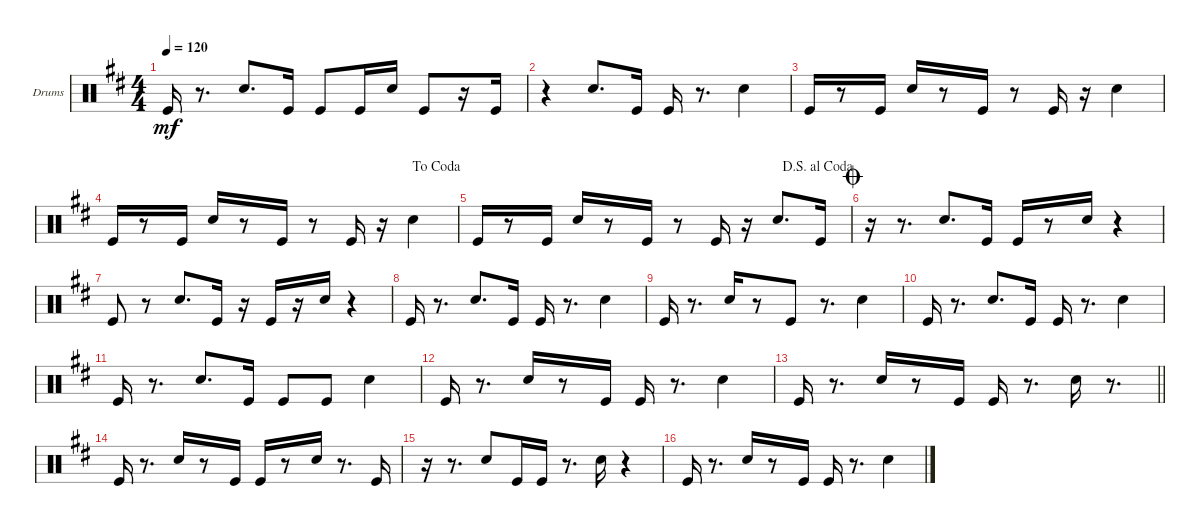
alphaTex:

\defaultSystemsLayout 4
\bracketExtendMode groupsimilarinstruments
\firstSystemTrackNameOrientation horizontal
\otherSystemsTrackNameOrientation horizontal
\track ("Drumkit" "Drums") {multiBarRest instrument percussion}
\staff {score}
\articulation defaults
\ts (4 4)
\tempo 120
\clef neutral
\scale
0.333333
\ks d "Kick (hit)".16{dy mf}
r.8{d} "Snare (hit) 2".8{d} "Kick (hit)".16 "Kick (hit)".8 "Kick (hit)".16 "Snare (hit) 2".16 "Kick (hit)".8 r.16 "Kick (hit)".16 |
\scale
0.333333 r.4 "Snare (hit) 2".8{d} "Kick (hit)".16 "Kick (hit)".16 r.8{d} "Snare (hit) 2".4 |
\scale
0.333333 "Kick (hit)".16 r.8 "Kick (hit)".16 "Snare (hit) 2".16 r.8 "Kick (hit)".16 r.8 "Kick (hit)".16 r.16 "Snare (hit) 2".4 |
\jump dacoda
\scale
0.333333 "Kick (hit)".16 r.8 "Kick (hit)".16 "Snare (hit) 2".16 r.8 "Kick (hit)".16 r.8 "Kick (hit)".16 r.16 "Snare (hit) 2".4 |
\jump dalsegnoalcoda
\scale
0.333333 "Kick (hit)".16 r.8 "Kick (hit)".16 "Snare (hit) 2".16 r.8 "Kick (hit)".16 r.8 "Kick (hit)".16 r.16 "Snare (hit) 2".8{d} "Kick (hit)".16 |
\jump coda
\scale
0.333333 r.16 r.8{d} "Snare (hit) 2".8{d} "Kick (hit)".16 "Kick (hit)".16 r.8 "Snare (hit) 2".16 r.4 |
\scale
0.333333 "Kick (hit)".8 r.8 "Snare (hit) 2".8{d} "Kick (hit)".16 r.16 "Kick (hit)".16 r.16 "Snare (hit) 2".16 r.4 |
\scale
0.333333 "Kick (hit)".16 r.8{d} "Snare (hit) 2".8{d} "Kick (hit)".16 "Kick (hit)".16 r.8{d} "Snare (hit) 2".4 |
\scale
0.333333 "Kick (hit)".16 r.8{d} "Snare (hit) 2".16 r.8 "Kick (hit)".8 r.8{d} "Snare (hit) 2".4 |
\scale
0.333333 "Kick (hit)".16 r.8{d} "Snare (hit) 2".8{d} "Kick (hit)".16 "Kick (hit)".16 r.8{d} "Snare (hit) 2".4 |
\scale
0.333333 "Kick (hit)".16 r.8{d} "Snare (hit) 2".8{d} "Kick (hit)".16 "Kick (hit)".8 "Kick (hit)".8 "Snare (hit) 2".4 |
\scale
0.333333 "Kick (hit)".16 r.8{d} "Snare (hit) 2".16 r.8 "Kick (hit)".16 "Kick (hit)".16 r.8{d} "Snare (hit) 2".4 |
\scale
0.333333
\barLineRight lightlight "Kick (hit)".16
r.8{d} "Snare (hit) 2".16 r.8 "Kick (hit)".16 "Kick (hit)".16 r.8{d} "Snare (hit) 2".16 r.8{d} |
\scale
0.333333 "Kick (hit)".16 r.8{d} "Snare (hit) 2".16 r.8 "Kick (hit)".16 "Kick (hit)".16 r.8 "Snare (hit) 2".16 r.8{d} "Kick (hit)".16 |
\scale
0.333333 r.16 r.8{d} "Snare (hit) 2".8 "Kick (hit)".16 "Kick (hit)".16 r.8{d} "Snare (hit) 2".16 r.4 |
\scale
0.333333 "Kick (hit)".16 r.8{d} "Snare (hit) 2".16 r.8 "Kick (hit)".16 "Kick (hit)".16 r.8{d} "Snare (hit) 2".4
